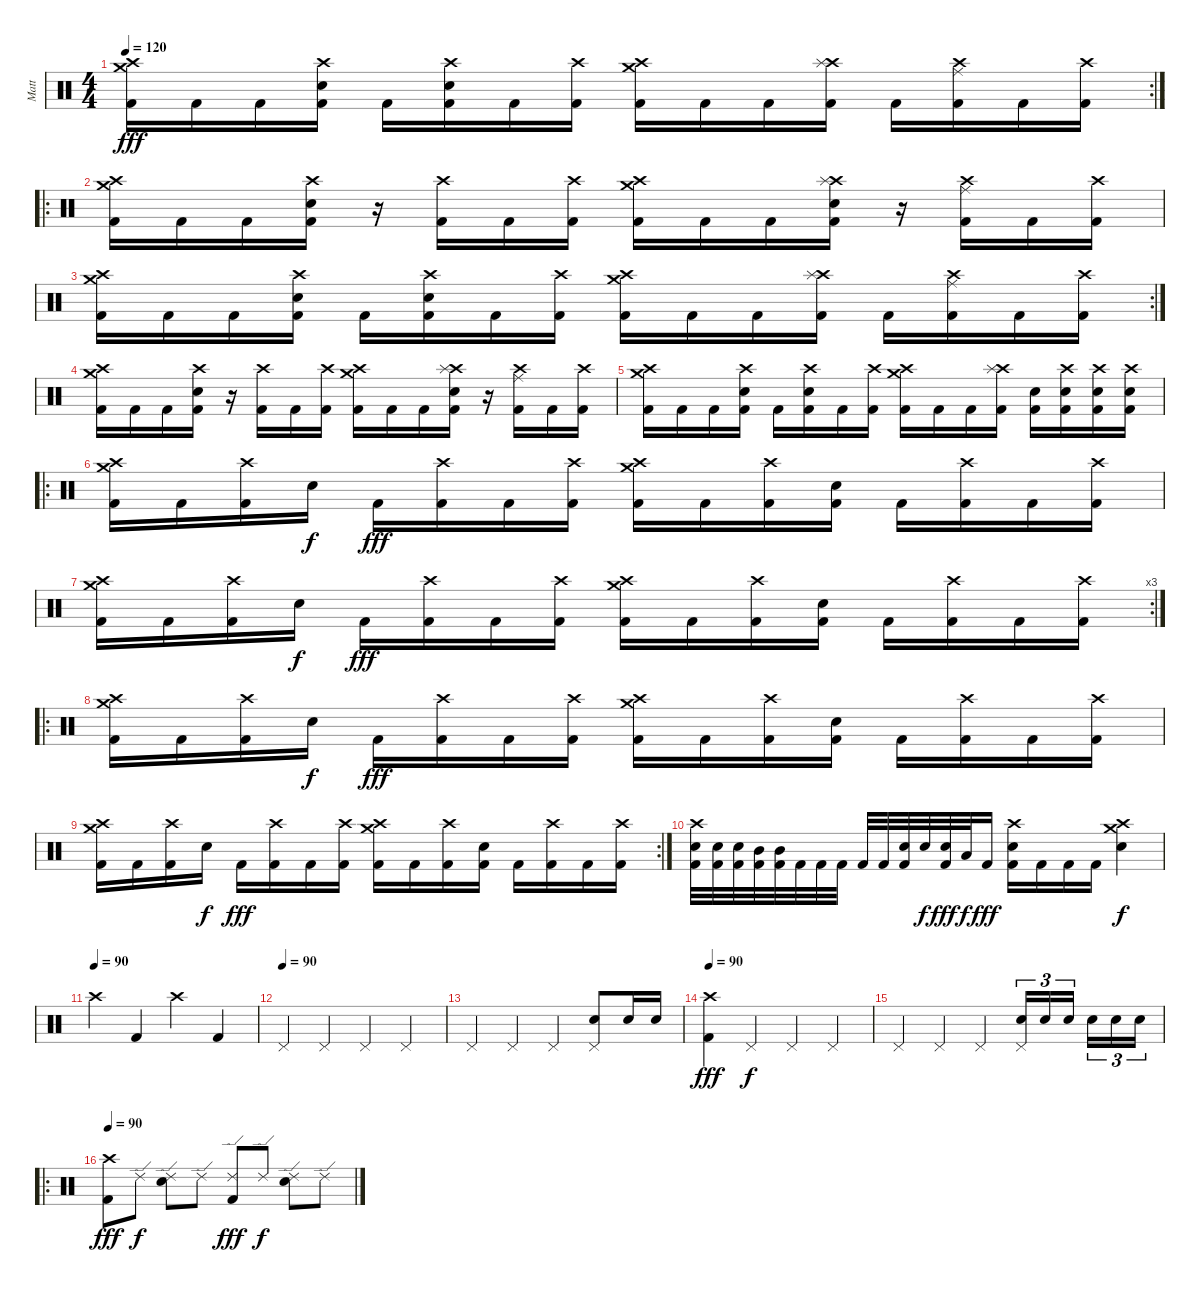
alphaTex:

\track ("Matt" "Matt") {instrument percussion}
\staff {score}
\articulation defaults
\rc 2
\ts (4 4)
\tempo 120
\clef neutral
\ks c
("Crash high (hit)" "Crash medium (hit)" "Kick (hit) 2").16{dy fff} "Kick (hit) 2".16 "Kick (hit) 2".16 ("Crash high (hit)" "Electric Snare (hit)" "Kick (hit) 2").16 "Kick (hit) 2".16 ("Crash high (hit)" "Electric Snare (hit)" "Kick (hit) 2").16 "Kick (hit) 2".16 ("Crash high (hit)" "Kick (hit) 2").16 ("Crash high (hit)" "Crash medium (hit)" "Kick (hit) 2").16 "Kick (hit) 2".16 "Kick (hit) 2".16 ("Crash high (hit)" "Splash (hit)" "Kick (hit) 2").16 "Kick (hit) 2".16 ("Crash high (hit)" "Ride (middle)" "Kick (hit) 2").16 "Kick (hit) 2".16 ("Crash high (hit)" "Kick (hit) 2").16 |
\ro
("Crash high (hit)" "Crash medium (hit)" "Kick (hit) 2").16 "Kick (hit) 2".16 "Kick (hit) 2".16 ("Crash high (hit)" "Electric Snare (hit)" "Kick (hit) 2").16 r.16 ("Crash high (hit)" "Kick (hit) 2").16 "Kick (hit) 2".16 ("Crash high (hit)" "Kick (hit) 2").16 ("Crash high (hit)" "Crash medium (hit)" "Kick (hit) 2").16 "Kick (hit) 2".16 "Kick (hit) 2".16 ("Crash high (hit)" "Splash (hit)" "Electric Snare (hit)" "Kick (hit) 2").16 r.16 ("Crash high (hit)" "Ride (middle)" "Kick (hit) 2").16 "Kick (hit) 2".16 ("Crash high (hit)" "Kick (hit) 2").16 |
\rc 2
("Crash high (hit)" "Crash medium (hit)" "Kick (hit) 2").16 "Kick (hit) 2".16 "Kick (hit) 2".16 ("Crash high (hit)" "Electric Snare (hit)" "Kick (hit) 2").16 "Kick (hit) 2".16 ("Crash high (hit)" "Electric Snare (hit)" "Kick (hit) 2").16 "Kick (hit) 2".16 ("Crash high (hit)" "Kick (hit) 2").16 ("Crash high (hit)" "Crash medium (hit)" "Kick (hit) 2").16 "Kick (hit) 2".16 "Kick (hit) 2".16 ("Crash high (hit)" "Splash (hit)" "Kick (hit) 2").16 "Kick (hit) 2".16 ("Crash high (hit)" "Ride (middle)" "Kick (hit) 2").16 "Kick (hit) 2".16 ("Crash high (hit)" "Kick (hit) 2").16 |
("Crash high (hit)" "Crash medium (hit)" "Kick (hit) 2").16 "Kick (hit) 2".16 "Kick (hit) 2".16 ("Crash high (hit)" "Electric Snare (hit)" "Kick (hit) 2").16 r.16 ("Crash high (hit)" "Kick (hit) 2").16 "Kick (hit) 2".16 ("Crash high (hit)" "Kick (hit) 2").16 ("Crash high (hit)" "Crash medium (hit)" "Kick (hit) 2").16 "Kick (hit) 2".16 "Kick (hit) 2".16 ("Crash high (hit)" "Splash (hit)" "Electric Snare (hit)" "Kick (hit) 2").16 r.16 ("Crash high (hit)" "Ride (middle)" "Kick (hit) 2").16 "Kick (hit) 2".16 ("Crash high (hit)" "Kick (hit) 2").16 |
("Crash high (hit)" "Crash medium (hit)" "Kick (hit) 2").16 "Kick (hit) 2".16 "Kick (hit) 2".16 ("Crash high (hit)" "Electric Snare (hit)" "Kick (hit) 2").16 "Kick (hit) 2".16 ("Crash high (hit)" "Electric Snare (hit)" "Kick (hit) 2").16 "Kick (hit) 2".16 ("Crash high (hit)" "Kick (hit) 2").16 ("Crash high (hit)" "Crash medium (hit)" "Kick (hit) 2").16 "Kick (hit) 2".16 "Kick (hit) 2".16 ("Crash high (hit)" "Splash (hit)" "Kick (hit) 2").16 ("Electric Snare (hit)" "Kick (hit) 2").16 ("Crash high (hit)" "Electric Snare (hit)" "Kick (hit) 2").16 ("Crash high (hit)" "Electric Snare (hit)" "Kick (hit) 2").16 ("Crash high (hit)" "Electric Snare (hit)" "Kick (hit) 2").16 |
\ro
("Crash high (hit)" "Crash medium (hit)" "Kick (hit) 2").16 "Kick (hit) 2".16 ("Crash high (hit)" "Kick (hit) 2").16 "Electric Snare (hit)".16{dy f} "Kick (hit) 2".16{dy fff} ("Crash high (hit)" "Kick (hit) 2").16 "Kick (hit) 2".16 ("Crash high (hit)" "Kick (hit) 2").16 ("Crash high (hit)" "Crash medium (hit)" "Kick (hit) 2").16 "Kick (hit) 2".16 ("Crash high (hit)" "Kick (hit) 2").16 ("Electric Snare (hit)" "Kick (hit) 2").16 "Kick (hit) 2".16 ("Crash high (hit)" "Kick (hit) 2").16 "Kick (hit) 2".16 ("Crash high (hit)" "Kick (hit) 2").16 |
\rc 3
("Crash high (hit)" "Crash medium (hit)" "Kick (hit) 2").16 "Kick (hit) 2".16 ("Crash high (hit)" "Kick (hit) 2").16 "Electric Snare (hit)".16{dy f} "Kick (hit) 2".16{dy fff} ("Crash high (hit)" "Kick (hit) 2").16 "Kick (hit) 2".16 ("Crash high (hit)" "Kick (hit) 2").16 ("Crash high (hit)" "Crash medium (hit)" "Kick (hit) 2").16 "Kick (hit) 2".16 ("Crash high (hit)" "Kick (hit) 2").16 ("Electric Snare (hit)" "Kick (hit) 2").16 "Kick (hit) 2".16 ("Crash high (hit)" "Kick (hit) 2").16 "Kick (hit) 2".16 ("Crash high (hit)" "Kick (hit) 2").16 |
\ro
("Crash high (hit)" "Crash medium (hit)" "Kick (hit) 2").16 "Kick (hit) 2".16 ("Crash high (hit)" "Kick (hit) 2").16 "Electric Snare (hit)".16{dy f} "Kick (hit) 2".16{dy fff} ("Crash high (hit)" "Kick (hit) 2").16 "Kick (hit) 2".16 ("Crash high (hit)" "Kick (hit) 2").16 ("Crash high (hit)" "Crash medium (hit)" "Kick (hit) 2").16 "Kick (hit) 2".16 ("Crash high (hit)" "Kick (hit) 2").16 ("Electric Snare (hit)" "Kick (hit) 2").16 "Kick (hit) 2".16 ("Crash high (hit)" "Kick (hit) 2").16 "Kick (hit) 2".16 ("Crash high (hit)" "Kick (hit) 2").16 |
\rc 2
("Crash high (hit)" "Crash medium (hit)" "Kick (hit) 2").16 "Kick (hit) 2".16 ("Crash high (hit)" "Kick (hit) 2").16 "Electric Snare (hit)".16{dy f} "Kick (hit) 2".16{dy fff} ("Crash high (hit)" "Kick (hit) 2").16 "Kick (hit) 2".16 ("Crash high (hit)" "Kick (hit) 2").16 ("Crash high (hit)" "Crash medium (hit)" "Kick (hit) 2").16 "Kick (hit) 2".16 ("Crash high (hit)" "Kick (hit) 2").16 ("Electric Snare (hit)" "Kick (hit) 2").16 "Kick (hit) 2".16 ("Crash high (hit)" "Kick (hit) 2").16 "Kick (hit) 2".16 ("Crash high (hit)" "Kick (hit) 2").16 |
("Crash high (hit)" "Electric Snare (hit)" "Kick (hit) 2").32 ("Electric Snare (hit)" "Kick (hit) 2").32 ("Electric Snare (hit)" "Kick (hit) 2").32 ("Mid Tom (hit)" "Kick (hit) 2").32 ("Mid Tom (hit)" "Kick (hit) 2").32 "Kick (hit) 2".32 "Kick (hit) 2".32 "Kick (hit) 2".32 "Kick (hit) 2".32 "Kick (hit) 2".32 ("Electric Snare (hit)" "Kick (hit) 2").32 "Electric Snare (hit)".32{dy f} ("Electric Snare (hit)" "Kick (hit) 2").32{dy fff} "Low Tom (hit)".32{dy f} "Kick (hit) 2".16{dy fff} ("Crash high (hit)" "Electric Snare (hit)" "Kick (hit) 2").16 "Kick (hit) 2".16 "Kick (hit) 2".16 "Kick (hit) 2".16 ("Crash high (hit)" "Crash medium (hit)" "Electric Snare (hit)").4{dy f} |
\tempo (90)
"Crash high (hit)".4 "Kick (hit) 2".4 "Crash high (hit)".4 "Kick (hit) 2".4 |
\tempo (90)
"Pedal Hi-Hat (hit)".4 "Pedal Hi-Hat (hit)".4 "Pedal Hi-Hat (hit)".4 "Pedal Hi-Hat (hit)".4 |
"Pedal Hi-Hat (hit)".4 "Pedal Hi-Hat (hit)".4 "Pedal Hi-Hat (hit)".4 ("Pedal Hi-Hat (hit)" "Electric Snare (hit)").8 "Electric Snare (hit)".16 "Electric Snare (hit)".16 |
\tempo 90
("Crash high (hit)" "Kick (hit) 2").4{dy fff} "Pedal Hi-Hat (hit)".4{dy f} "Pedal Hi-Hat (hit)".4 "Pedal Hi-Hat (hit)".4 |
"Pedal Hi-Hat (hit)".4 "Pedal Hi-Hat (hit)".4 "Pedal Hi-Hat (hit)".4 ("Pedal Hi-Hat (hit)" "Electric Snare (hit)").16{tu (3 2)} "Electric Snare (hit)".16{tu (3 2)} "Electric Snare (hit)".16{tu (3 2)} "Electric Snare (hit)".16{tu (3 2)} "Electric Snare (hit)".16{tu (3 2)} "Electric Snare (hit)".16{tu (3 2)} |
\ro
\tempo 90
("Crash high (hit)" "Kick (hit) 2").8{dy fff} "Ride (edge) 2".8{dy f} ("Ride (edge) 2" "Electric Snare (hit)").8 "Ride (edge) 2".8 ("Ride (edge) 2" "Kick (hit) 2").8{dy fff} "Ride (edge) 2".8{dy f} ("Ride (edge) 2" "Electric Snare (hit)").8 "Ride (edge) 2".8
